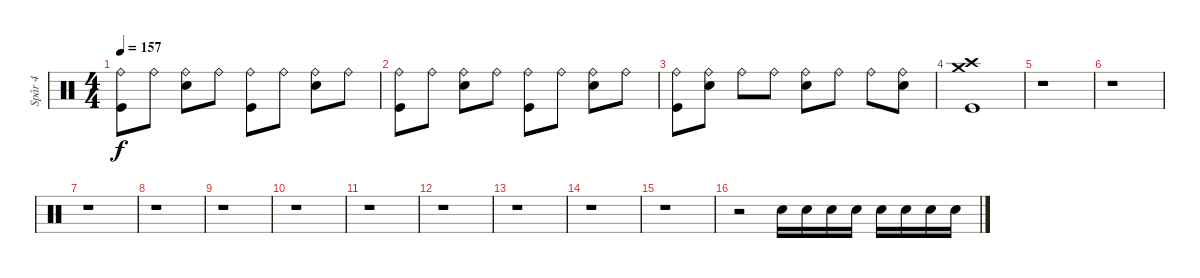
\track ("Spår 4" "Spår 4") {instrument percussion}
\staff {score}
\articulation defaults
\ts (4 4)
\tempo 157
\clef neutral
\ks c
("Ride (bell)" "Kick (hit)").8{dy f} "Ride (bell)".8 ("Ride (bell)" "Snare (hit) 2").8 "Ride (bell)".8 ("Ride (bell)" "Kick (hit)").8 "Ride (bell)".8 ("Ride (bell)" "Snare (hit) 2").8 "Ride (bell)".8 |
("Ride (bell)" "Kick (hit)").8 "Ride (bell)".8 ("Ride (bell)" "Snare (hit) 2").8 "Ride (bell)".8 ("Ride (bell)" "Kick (hit)").8 "Ride (bell)".8 ("Ride (bell)" "Snare (hit) 2").8 "Ride (bell)".8 |
("Ride (bell)" "Kick (hit)").8 ("Ride (bell)" "Snare (hit) 2").8 "Ride (bell)".8 "Ride (bell)".8 ("Ride (bell)" "Snare (hit) 2").8 "Ride (bell)".8 "Ride (bell)".8 ("Ride (bell)" "Snare (hit) 2").8 |
("Crash medium (hit)" "Crash high (hit)" "Kick (hit)").1 |
r.1 |
r.1 |
r.1 |
r.1 |
r.1 |
r.1 |
r.1 |
r.1 |
r.1 |
r.1 |
r.1 |
r.2 "Snare (hit) 2".16 "Snare (hit) 2".16 "Snare (hit) 2".16 "Snare (hit) 2".16 "Snare (hit) 2".16 "Snare (hit) 2".16 "Snare (hit) 2".16 "Snare (hit) 2".16
